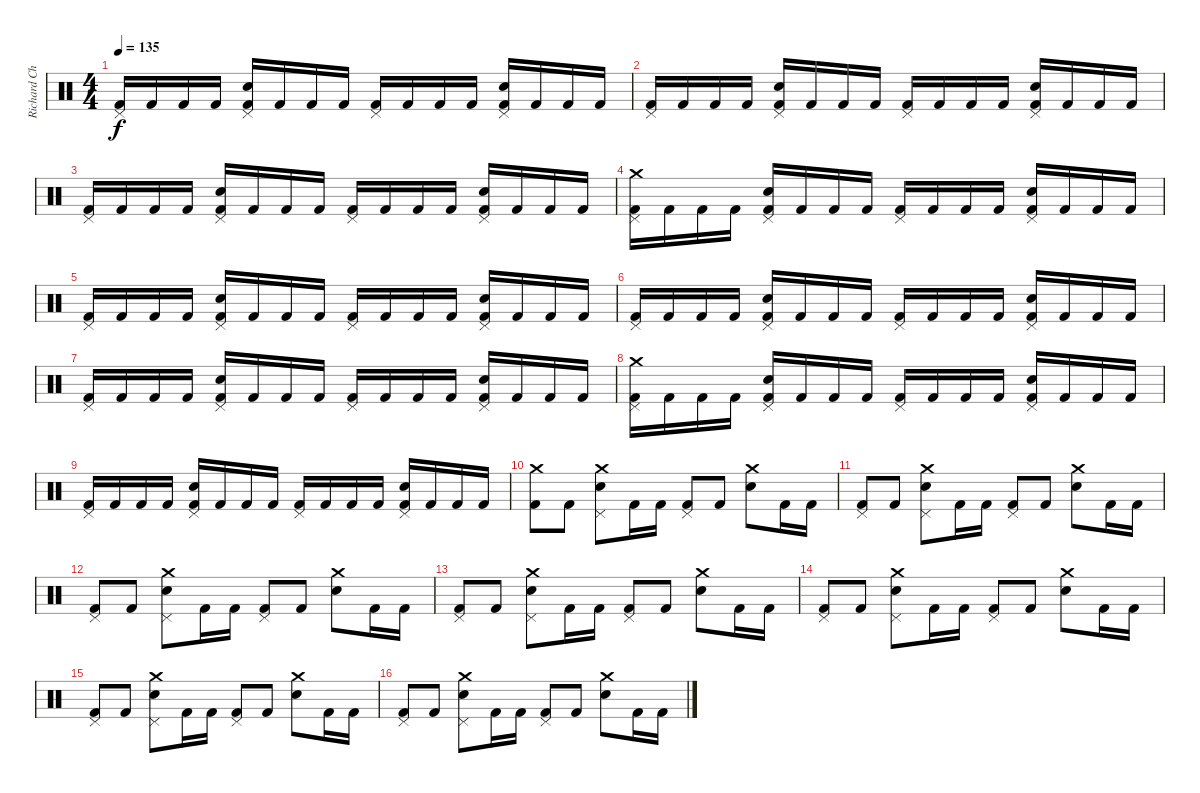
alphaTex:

\track ("Richard Christy" "Richard Ch") {instrument percussion}
\staff {score}
\articulation defaults
\ts (4 4)
\tempo 135
\clef neutral
\ks c
("Pedal Hi-Hat (hit)" "Kick (hit) 2").16{dy f} "Kick (hit) 2".16 "Kick (hit) 2".16 "Kick (hit) 2".16 ("Snare (hit) 2" "Pedal Hi-Hat (hit)" "Kick (hit) 2").16 "Kick (hit) 2".16 "Kick (hit) 2".16 "Kick (hit) 2".16 ("Pedal Hi-Hat (hit)" "Kick (hit) 2").16 "Kick (hit) 2".16 "Kick (hit) 2".16 "Kick (hit) 2".16 ("Snare (hit) 2" "Pedal Hi-Hat (hit)" "Kick (hit) 2").16 "Kick (hit) 2".16 "Kick (hit) 2".16 "Kick (hit) 2".16 |
("Pedal Hi-Hat (hit)" "Kick (hit) 2").16 "Kick (hit) 2".16 "Kick (hit) 2".16 "Kick (hit) 2".16 ("Snare (hit) 2" "Pedal Hi-Hat (hit)" "Kick (hit) 2").16 "Kick (hit) 2".16 "Kick (hit) 2".16 "Kick (hit) 2".16 ("Pedal Hi-Hat (hit)" "Kick (hit) 2").16 "Kick (hit) 2".16 "Kick (hit) 2".16 "Kick (hit) 2".16 ("Snare (hit) 2" "Pedal Hi-Hat (hit)" "Kick (hit) 2").16 "Kick (hit) 2".16 "Kick (hit) 2".16 "Kick (hit) 2".16 |
("Pedal Hi-Hat (hit)" "Kick (hit) 2").16 "Kick (hit) 2".16 "Kick (hit) 2".16 "Kick (hit) 2".16 ("Snare (hit) 2" "Pedal Hi-Hat (hit)" "Kick (hit) 2").16 "Kick (hit) 2".16 "Kick (hit) 2".16 "Kick (hit) 2".16 ("Pedal Hi-Hat (hit)" "Kick (hit) 2").16 "Kick (hit) 2".16 "Kick (hit) 2".16 "Kick (hit) 2".16 ("Snare (hit) 2" "Pedal Hi-Hat (hit)" "Kick (hit) 2").16 "Kick (hit) 2".16 "Kick (hit) 2".16 "Kick (hit) 2".16 |
("Pedal Hi-Hat (hit)" "Crash medium (hit)" "Kick (hit) 2").16 "Kick (hit) 2".16 "Kick (hit) 2".16 "Kick (hit) 2".16 ("Snare (hit) 2" "Pedal Hi-Hat (hit)" "Kick (hit) 2").16 "Kick (hit) 2".16 "Kick (hit) 2".16 "Kick (hit) 2".16 ("Pedal Hi-Hat (hit)" "Kick (hit) 2").16 "Kick (hit) 2".16 "Kick (hit) 2".16 "Kick (hit) 2".16 ("Snare (hit) 2" "Pedal Hi-Hat (hit)" "Kick (hit) 2").16 "Kick (hit) 2".16 "Kick (hit) 2".16 "Kick (hit) 2".16 |
("Pedal Hi-Hat (hit)" "Kick (hit) 2").16 "Kick (hit) 2".16 "Kick (hit) 2".16 "Kick (hit) 2".16 ("Snare (hit) 2" "Pedal Hi-Hat (hit)" "Kick (hit) 2").16 "Kick (hit) 2".16 "Kick (hit) 2".16 "Kick (hit) 2".16 ("Pedal Hi-Hat (hit)" "Kick (hit) 2").16 "Kick (hit) 2".16 "Kick (hit) 2".16 "Kick (hit) 2".16 ("Snare (hit) 2" "Pedal Hi-Hat (hit)" "Kick (hit) 2").16 "Kick (hit) 2".16 "Kick (hit) 2".16 "Kick (hit) 2".16 |
("Pedal Hi-Hat (hit)" "Kick (hit) 2").16 "Kick (hit) 2".16 "Kick (hit) 2".16 "Kick (hit) 2".16 ("Snare (hit) 2" "Pedal Hi-Hat (hit)" "Kick (hit) 2").16 "Kick (hit) 2".16 "Kick (hit) 2".16 "Kick (hit) 2".16 ("Pedal Hi-Hat (hit)" "Kick (hit) 2").16 "Kick (hit) 2".16 "Kick (hit) 2".16 "Kick (hit) 2".16 ("Snare (hit) 2" "Pedal Hi-Hat (hit)" "Kick (hit) 2").16 "Kick (hit) 2".16 "Kick (hit) 2".16 "Kick (hit) 2".16 |
("Pedal Hi-Hat (hit)" "Kick (hit) 2").16 "Kick (hit) 2".16 "Kick (hit) 2".16 "Kick (hit) 2".16 ("Snare (hit) 2" "Pedal Hi-Hat (hit)" "Kick (hit) 2").16 "Kick (hit) 2".16 "Kick (hit) 2".16 "Kick (hit) 2".16 ("Pedal Hi-Hat (hit)" "Kick (hit) 2").16 "Kick (hit) 2".16 "Kick (hit) 2".16 "Kick (hit) 2".16 ("Snare (hit) 2" "Pedal Hi-Hat (hit)" "Kick (hit) 2").16 "Kick (hit) 2".16 "Kick (hit) 2".16 "Kick (hit) 2".16 |
("Pedal Hi-Hat (hit)" "Crash medium (hit)" "Kick (hit) 2").16 "Kick (hit) 2".16 "Kick (hit) 2".16 "Kick (hit) 2".16 ("Snare (hit) 2" "Pedal Hi-Hat (hit)" "Kick (hit) 2").16 "Kick (hit) 2".16 "Kick (hit) 2".16 "Kick (hit) 2".16 ("Pedal Hi-Hat (hit)" "Kick (hit) 2").16 "Kick (hit) 2".16 "Kick (hit) 2".16 "Kick (hit) 2".16 ("Snare (hit) 2" "Pedal Hi-Hat (hit)" "Kick (hit) 2").16 "Kick (hit) 2".16 "Kick (hit) 2".16 "Kick (hit) 2".16 |
("Pedal Hi-Hat (hit)" "Kick (hit) 2").16 "Kick (hit) 2".16 "Kick (hit) 2".16 "Kick (hit) 2".16 ("Snare (hit) 2" "Pedal Hi-Hat (hit)" "Kick (hit) 2").16 "Kick (hit) 2".16 "Kick (hit) 2".16 "Kick (hit) 2".16 ("Pedal Hi-Hat (hit)" "Kick (hit) 2").16 "Kick (hit) 2".16 "Kick (hit) 2".16 "Kick (hit) 2".16 ("Snare (hit) 2" "Pedal Hi-Hat (hit)" "Kick (hit) 2").16 "Kick (hit) 2".16 "Kick (hit) 2".16 "Kick (hit) 2".16 |
("Crash medium (hit)" "Kick (hit) 2").8 "Kick (hit) 2".8 ("Snare (hit) 2" "Pedal Hi-Hat (hit)" "Crash medium (hit)").8 "Kick (hit) 2".16 "Kick (hit) 2".16 ("Pedal Hi-Hat (hit)" "Kick (hit) 2").8 "Kick (hit) 2".8 ("Snare (hit) 2" "Crash medium (hit)").8 "Kick (hit) 2".16 "Kick (hit) 2".16 |
("Pedal Hi-Hat (hit)" "Kick (hit) 2").8 "Kick (hit) 2".8 ("Snare (hit) 2" "Pedal Hi-Hat (hit)" "Crash medium (hit)").8 "Kick (hit) 2".16 "Kick (hit) 2".16 ("Pedal Hi-Hat (hit)" "Kick (hit) 2").8 "Kick (hit) 2".8 ("Snare (hit) 2" "Crash medium (hit)").8 "Kick (hit) 2".16 "Kick (hit) 2".16 |
("Pedal Hi-Hat (hit)" "Kick (hit) 2").8 "Kick (hit) 2".8 ("Snare (hit) 2" "Pedal Hi-Hat (hit)" "Crash medium (hit)").8 "Kick (hit) 2".16 "Kick (hit) 2".16 ("Pedal Hi-Hat (hit)" "Kick (hit) 2").8 "Kick (hit) 2".8 ("Snare (hit) 2" "Crash medium (hit)").8 "Kick (hit) 2".16 "Kick (hit) 2".16 |
("Pedal Hi-Hat (hit)" "Kick (hit) 2").8 "Kick (hit) 2".8 ("Snare (hit) 2" "Pedal Hi-Hat (hit)" "Crash medium (hit)").8 "Kick (hit) 2".16 "Kick (hit) 2".16 ("Pedal Hi-Hat (hit)" "Kick (hit) 2").8 "Kick (hit) 2".8 ("Snare (hit) 2" "Crash medium (hit)").8 "Kick (hit) 2".16 "Kick (hit) 2".16 |
("Pedal Hi-Hat (hit)" "Kick (hit) 2").8 "Kick (hit) 2".8 ("Snare (hit) 2" "Pedal Hi-Hat (hit)" "Crash medium (hit)").8 "Kick (hit) 2".16 "Kick (hit) 2".16 ("Pedal Hi-Hat (hit)" "Kick (hit) 2").8 "Kick (hit) 2".8 ("Snare (hit) 2" "Crash medium (hit)").8 "Kick (hit) 2".16 "Kick (hit) 2".16 |
("Pedal Hi-Hat (hit)" "Kick (hit) 2").8 "Kick (hit) 2".8 ("Snare (hit) 2" "Pedal Hi-Hat (hit)" "Crash medium (hit)").8 "Kick (hit) 2".16 "Kick (hit) 2".16 ("Pedal Hi-Hat (hit)" "Kick (hit) 2").8 "Kick (hit) 2".8 ("Snare (hit) 2" "Crash medium (hit)").8 "Kick (hit) 2".16 "Kick (hit) 2".16 |
("Pedal Hi-Hat (hit)" "Kick (hit) 2").8 "Kick (hit) 2".8 ("Snare (hit) 2" "Pedal Hi-Hat (hit)" "Crash medium (hit)").8 "Kick (hit) 2".16 "Kick (hit) 2".16 ("Pedal Hi-Hat (hit)" "Kick (hit) 2").8 "Kick (hit) 2".8 ("Snare (hit) 2" "Crash medium (hit)").8 "Kick (hit) 2".16 "Kick (hit) 2".16
